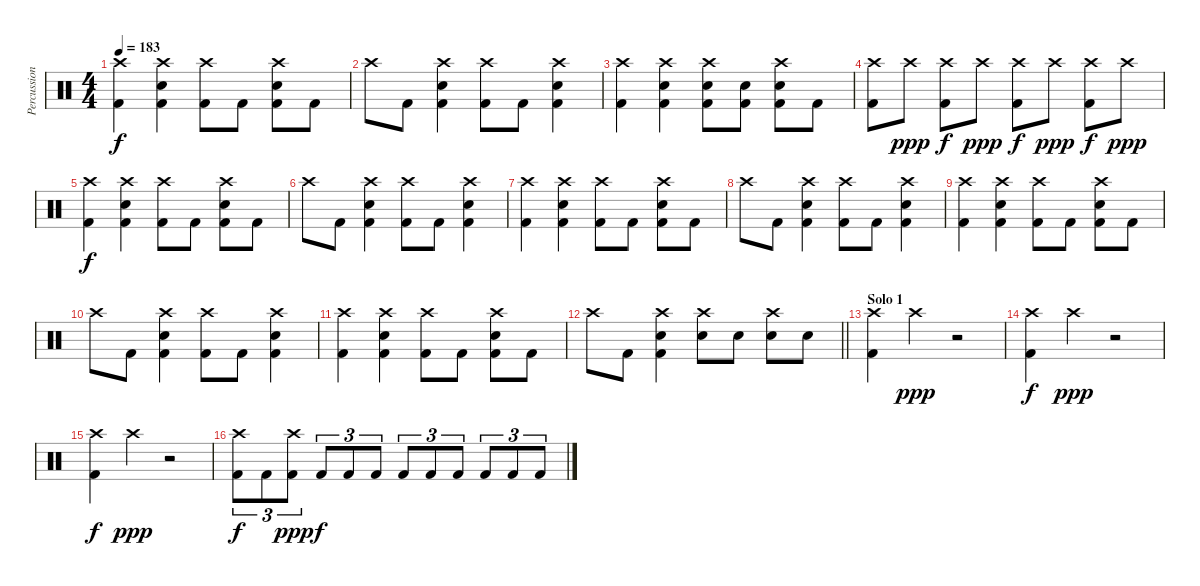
\track ("Percussion" "Percussion") {instrument percussion}
\staff {score}
\articulation defaults
\ts (4 4)
\tempo 183
\clef neutral
\ks aminor
("Crash high (hit)" "Kick (hit) 2").4{dy f} ("Crash high (hit)" "Electric Snare (hit)" "Kick (hit) 2").4 ("Crash high (hit)" "Kick (hit) 2").8 "Kick (hit) 2".8 ("Crash high (hit)" "Electric Snare (hit)" "Kick (hit) 2").8 "Kick (hit) 2".8 |
"Crash high (hit)".8 "Kick (hit) 2".8 ("Crash high (hit)" "Electric Snare (hit)" "Kick (hit) 2").4 ("Crash high (hit)" "Kick (hit) 2").8 "Kick (hit) 2".8 ("Crash high (hit)" "Electric Snare (hit)" "Kick (hit) 2").4 |
("Crash high (hit)" "Kick (hit) 2").4 ("Crash high (hit)" "Electric Snare (hit)" "Kick (hit) 2").4 ("Crash high (hit)" "Electric Snare (hit)" "Kick (hit) 2").8 ("Electric Snare (hit)" "Kick (hit) 2").8 ("Crash high (hit)" "Electric Snare (hit)" "Kick (hit) 2").8 "Kick (hit) 2".8 |
("Crash high (hit)" "Kick (hit) 2").8 "Crash high (hit)".8{dy ppp} ("Crash high (hit)" "Kick (hit) 2").8{dy f} "Crash high (hit)".8{dy ppp} ("Crash high (hit)" "Kick (hit) 2").8{dy f} "Crash high (hit)".8{dy ppp} ("Crash high (hit)" "Kick (hit) 2").8{dy f} "Crash high (hit)".8{dy ppp} |
("Crash high (hit)" "Kick (hit) 2").4{dy f} ("Crash high (hit)" "Electric Snare (hit)" "Kick (hit) 2").4 ("Crash high (hit)" "Kick (hit) 2").8 "Kick (hit) 2".8 ("Crash high (hit)" "Electric Snare (hit)" "Kick (hit) 2").8 "Kick (hit) 2".8 |
"Crash high (hit)".8 "Kick (hit) 2".8 ("Crash high (hit)" "Electric Snare (hit)" "Kick (hit) 2").4 ("Crash high (hit)" "Kick (hit) 2").8 "Kick (hit) 2".8 ("Crash high (hit)" "Electric Snare (hit)" "Kick (hit) 2").4 |
("Crash high (hit)" "Kick (hit) 2").4 ("Crash high (hit)" "Electric Snare (hit)" "Kick (hit) 2").4 ("Crash high (hit)" "Kick (hit) 2").8 "Kick (hit) 2".8 ("Crash high (hit)" "Electric Snare (hit)" "Kick (hit) 2").8 "Kick (hit) 2".8 |
"Crash high (hit)".8 "Kick (hit) 2".8 ("Crash high (hit)" "Electric Snare (hit)" "Kick (hit) 2").4 ("Crash high (hit)" "Kick (hit) 2").8 "Kick (hit) 2".8 ("Crash high (hit)" "Electric Snare (hit)" "Kick (hit) 2").4 |
("Crash high (hit)" "Kick (hit) 2").4 ("Crash high (hit)" "Electric Snare (hit)" "Kick (hit) 2").4 ("Crash high (hit)" "Kick (hit) 2").8 "Kick (hit) 2".8 ("Crash high (hit)" "Electric Snare (hit)" "Kick (hit) 2").8 "Kick (hit) 2".8 |
"Crash high (hit)".8 "Kick (hit) 2".8 ("Crash high (hit)" "Electric Snare (hit)" "Kick (hit) 2").4 ("Crash high (hit)" "Kick (hit) 2").8 "Kick (hit) 2".8 ("Crash high (hit)" "Electric Snare (hit)" "Kick (hit) 2").4 |
("Crash high (hit)" "Kick (hit) 2").4 ("Crash high (hit)" "Electric Snare (hit)" "Kick (hit) 2").4 ("Crash high (hit)" "Kick (hit) 2").8 "Kick (hit) 2".8 ("Crash high (hit)" "Electric Snare (hit)" "Kick (hit) 2").8 "Kick (hit) 2".8 |
\barLineRight lightlight "Crash high (hit)".8 "Kick (hit) 2".8
("Crash high (hit)" "Electric Snare (hit)" "Kick (hit) 2").4 ("Crash high (hit)" "Electric Snare (hit)").8 "Electric Snare (hit)".8 ("Crash high (hit)" "Electric Snare (hit)").8 "Electric Snare (hit)".8 |
\section ("" "Solo 1")
("Crash high (hit)" "Kick (hit) 2").4 "Crash high (hit)".4{dy ppp} r.2 |
("Crash high (hit)" "Kick (hit) 2").4{dy f} "Crash high (hit)".4{dy ppp} r.2 |
("Crash high (hit)" "Kick (hit) 2").4{dy f} "Crash high (hit)".4{dy ppp} r.2 |
("Crash high (hit)" "Kick (hit) 2").8{tu (3 2) dy f} "Kick (hit) 2".8{tu (3 2)} ("Crash high (hit)" "Kick (hit) 2").8{tu (3 2) dy ppp} "Kick (hit) 2".8{tu (3 2) dy f} "Kick (hit) 2".8{tu (3 2)} "Kick (hit) 2".8{tu (3 2)} "Kick (hit) 2".8{tu (3 2)} "Kick (hit) 2".8{tu (3 2)} "Kick (hit) 2".8{tu (3 2)} "Kick (hit) 2".8{tu (3 2)} "Kick (hit) 2".8{tu (3 2)} "Kick (hit) 2".8{tu (3 2)}
